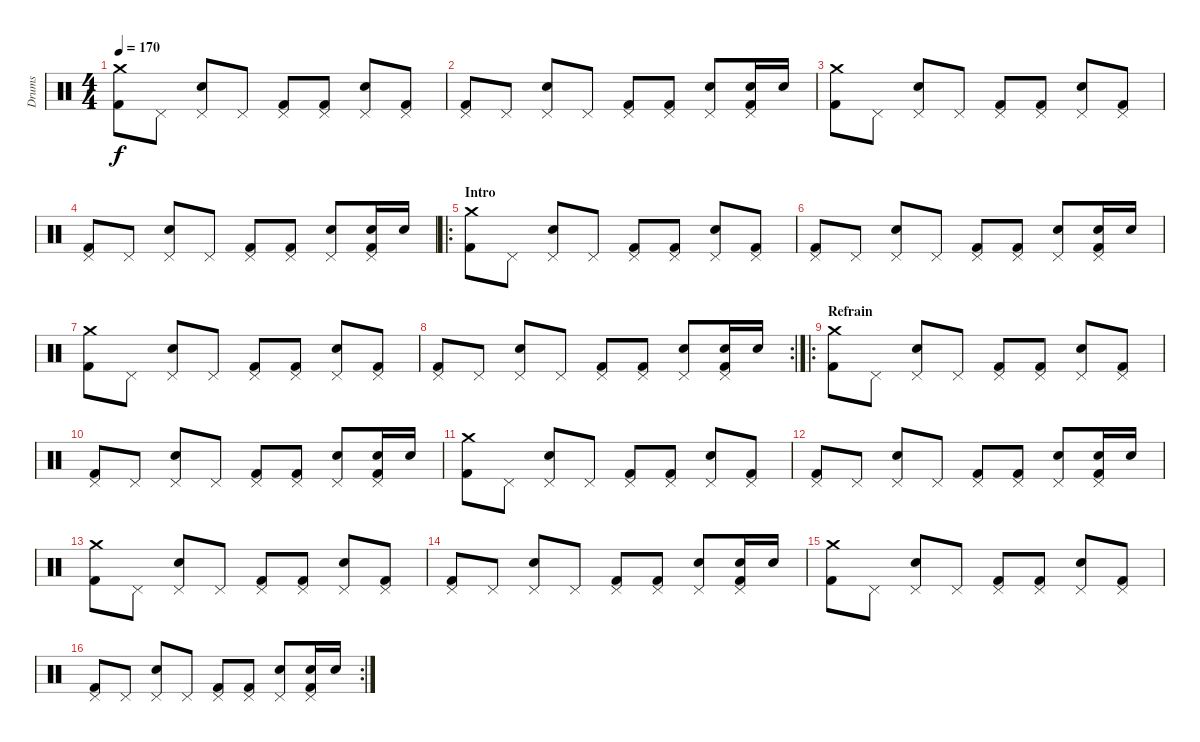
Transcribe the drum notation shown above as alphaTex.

\track ("Drums" "Drums") {instrument percussion}
\staff {score}
\articulation defaults
\ts (4 4)
\tempo 170
\clef neutral
\ks c
("Crash medium (hit)" "Kick (hit) 2").8{dy f} "Pedal Hi-Hat (hit)".8 ("Pedal Hi-Hat (hit)" "Snare (hit) 2").8 "Pedal Hi-Hat (hit)".8 ("Pedal Hi-Hat (hit)" "Kick (hit) 2").8 ("Pedal Hi-Hat (hit)" "Kick (hit) 2").8 ("Pedal Hi-Hat (hit)" "Snare (hit) 2").8 ("Pedal Hi-Hat (hit)" "Kick (hit) 2").8 |
("Pedal Hi-Hat (hit)" "Kick (hit) 2").8 "Pedal Hi-Hat (hit)".8 ("Pedal Hi-Hat (hit)" "Snare (hit) 2").8 "Pedal Hi-Hat (hit)".8 ("Pedal Hi-Hat (hit)" "Kick (hit) 2").8 ("Pedal Hi-Hat (hit)" "Kick (hit) 2").8 ("Pedal Hi-Hat (hit)" "Snare (hit) 2").8 ("Pedal Hi-Hat (hit)" "Snare (hit) 2" "Kick (hit) 2").16 "Snare (hit) 2".16 |
("Crash medium (hit)" "Kick (hit) 2").8 "Pedal Hi-Hat (hit)".8 ("Pedal Hi-Hat (hit)" "Snare (hit) 2").8 "Pedal Hi-Hat (hit)".8 ("Pedal Hi-Hat (hit)" "Kick (hit) 2").8 ("Pedal Hi-Hat (hit)" "Kick (hit) 2").8 ("Pedal Hi-Hat (hit)" "Snare (hit) 2").8 ("Pedal Hi-Hat (hit)" "Kick (hit) 2").8 |
("Pedal Hi-Hat (hit)" "Kick (hit) 2").8 "Pedal Hi-Hat (hit)".8 ("Pedal Hi-Hat (hit)" "Snare (hit) 2").8 "Pedal Hi-Hat (hit)".8 ("Pedal Hi-Hat (hit)" "Kick (hit) 2").8 ("Pedal Hi-Hat (hit)" "Kick (hit) 2").8 ("Pedal Hi-Hat (hit)" "Snare (hit) 2").8 ("Pedal Hi-Hat (hit)" "Snare (hit) 2" "Kick (hit) 2").16 "Snare (hit) 2".16 |
\ro
\section ("" "Intro")
("Crash medium (hit)" "Kick (hit) 2").8 "Pedal Hi-Hat (hit)".8 ("Pedal Hi-Hat (hit)" "Snare (hit) 2").8 "Pedal Hi-Hat (hit)".8 ("Pedal Hi-Hat (hit)" "Kick (hit) 2").8 ("Pedal Hi-Hat (hit)" "Kick (hit) 2").8 ("Pedal Hi-Hat (hit)" "Snare (hit) 2").8 ("Pedal Hi-Hat (hit)" "Kick (hit) 2").8 |
("Pedal Hi-Hat (hit)" "Kick (hit) 2").8 "Pedal Hi-Hat (hit)".8 ("Pedal Hi-Hat (hit)" "Snare (hit) 2").8 "Pedal Hi-Hat (hit)".8 ("Pedal Hi-Hat (hit)" "Kick (hit) 2").8 ("Pedal Hi-Hat (hit)" "Kick (hit) 2").8 ("Pedal Hi-Hat (hit)" "Snare (hit) 2").8 ("Pedal Hi-Hat (hit)" "Snare (hit) 2" "Kick (hit) 2").16 "Snare (hit) 2".16 |
("Crash medium (hit)" "Kick (hit) 2").8 "Pedal Hi-Hat (hit)".8 ("Pedal Hi-Hat (hit)" "Snare (hit) 2").8 "Pedal Hi-Hat (hit)".8 ("Pedal Hi-Hat (hit)" "Kick (hit) 2").8 ("Pedal Hi-Hat (hit)" "Kick (hit) 2").8 ("Pedal Hi-Hat (hit)" "Snare (hit) 2").8 ("Pedal Hi-Hat (hit)" "Kick (hit) 2").8 |
\rc 2
("Pedal Hi-Hat (hit)" "Kick (hit) 2").8 "Pedal Hi-Hat (hit)".8 ("Pedal Hi-Hat (hit)" "Snare (hit) 2").8 "Pedal Hi-Hat (hit)".8 ("Pedal Hi-Hat (hit)" "Kick (hit) 2").8 ("Pedal Hi-Hat (hit)" "Kick (hit) 2").8 ("Pedal Hi-Hat (hit)" "Snare (hit) 2").8 ("Pedal Hi-Hat (hit)" "Snare (hit) 2" "Kick (hit) 2").16 "Snare (hit) 2".16 |
\ro
\section ("" "Refrain")
("Crash medium (hit)" "Kick (hit) 2").8 "Pedal Hi-Hat (hit)".8 ("Pedal Hi-Hat (hit)" "Snare (hit) 2").8 "Pedal Hi-Hat (hit)".8 ("Pedal Hi-Hat (hit)" "Kick (hit) 2").8 ("Pedal Hi-Hat (hit)" "Kick (hit) 2").8 ("Pedal Hi-Hat (hit)" "Snare (hit) 2").8 ("Pedal Hi-Hat (hit)" "Kick (hit) 2").8 |
("Pedal Hi-Hat (hit)" "Kick (hit) 2").8 "Pedal Hi-Hat (hit)".8 ("Pedal Hi-Hat (hit)" "Snare (hit) 2").8 "Pedal Hi-Hat (hit)".8 ("Pedal Hi-Hat (hit)" "Kick (hit) 2").8 ("Pedal Hi-Hat (hit)" "Kick (hit) 2").8 ("Pedal Hi-Hat (hit)" "Snare (hit) 2").8 ("Pedal Hi-Hat (hit)" "Snare (hit) 2" "Kick (hit) 2").16 "Snare (hit) 2".16 |
("Crash medium (hit)" "Kick (hit) 2").8 "Pedal Hi-Hat (hit)".8 ("Pedal Hi-Hat (hit)" "Snare (hit) 2").8 "Pedal Hi-Hat (hit)".8 ("Pedal Hi-Hat (hit)" "Kick (hit) 2").8 ("Pedal Hi-Hat (hit)" "Kick (hit) 2").8 ("Pedal Hi-Hat (hit)" "Snare (hit) 2").8 ("Pedal Hi-Hat (hit)" "Kick (hit) 2").8 |
("Pedal Hi-Hat (hit)" "Kick (hit) 2").8 "Pedal Hi-Hat (hit)".8 ("Pedal Hi-Hat (hit)" "Snare (hit) 2").8 "Pedal Hi-Hat (hit)".8 ("Pedal Hi-Hat (hit)" "Kick (hit) 2").8 ("Pedal Hi-Hat (hit)" "Kick (hit) 2").8 ("Pedal Hi-Hat (hit)" "Snare (hit) 2").8 ("Pedal Hi-Hat (hit)" "Snare (hit) 2" "Kick (hit) 2").16 "Snare (hit) 2".16 |
("Crash medium (hit)" "Kick (hit) 2").8 "Pedal Hi-Hat (hit)".8 ("Pedal Hi-Hat (hit)" "Snare (hit) 2").8 "Pedal Hi-Hat (hit)".8 ("Pedal Hi-Hat (hit)" "Kick (hit) 2").8 ("Pedal Hi-Hat (hit)" "Kick (hit) 2").8 ("Pedal Hi-Hat (hit)" "Snare (hit) 2").8 ("Pedal Hi-Hat (hit)" "Kick (hit) 2").8 |
("Pedal Hi-Hat (hit)" "Kick (hit) 2").8 "Pedal Hi-Hat (hit)".8 ("Pedal Hi-Hat (hit)" "Snare (hit) 2").8 "Pedal Hi-Hat (hit)".8 ("Pedal Hi-Hat (hit)" "Kick (hit) 2").8 ("Pedal Hi-Hat (hit)" "Kick (hit) 2").8 ("Pedal Hi-Hat (hit)" "Snare (hit) 2").8 ("Pedal Hi-Hat (hit)" "Snare (hit) 2" "Kick (hit) 2").16 "Snare (hit) 2".16 |
("Crash medium (hit)" "Kick (hit) 2").8 "Pedal Hi-Hat (hit)".8 ("Pedal Hi-Hat (hit)" "Snare (hit) 2").8 "Pedal Hi-Hat (hit)".8 ("Pedal Hi-Hat (hit)" "Kick (hit) 2").8 ("Pedal Hi-Hat (hit)" "Kick (hit) 2").8 ("Pedal Hi-Hat (hit)" "Snare (hit) 2").8 ("Pedal Hi-Hat (hit)" "Kick (hit) 2").8 |
\rc 2
("Pedal Hi-Hat (hit)" "Kick (hit) 2").8 "Pedal Hi-Hat (hit)".8 ("Pedal Hi-Hat (hit)" "Snare (hit) 2").8 "Pedal Hi-Hat (hit)".8 ("Pedal Hi-Hat (hit)" "Kick (hit) 2").8 ("Pedal Hi-Hat (hit)" "Kick (hit) 2").8 ("Pedal Hi-Hat (hit)" "Snare (hit) 2").8 ("Pedal Hi-Hat (hit)" "Snare (hit) 2" "Kick (hit) 2").16 "Snare (hit) 2".16
